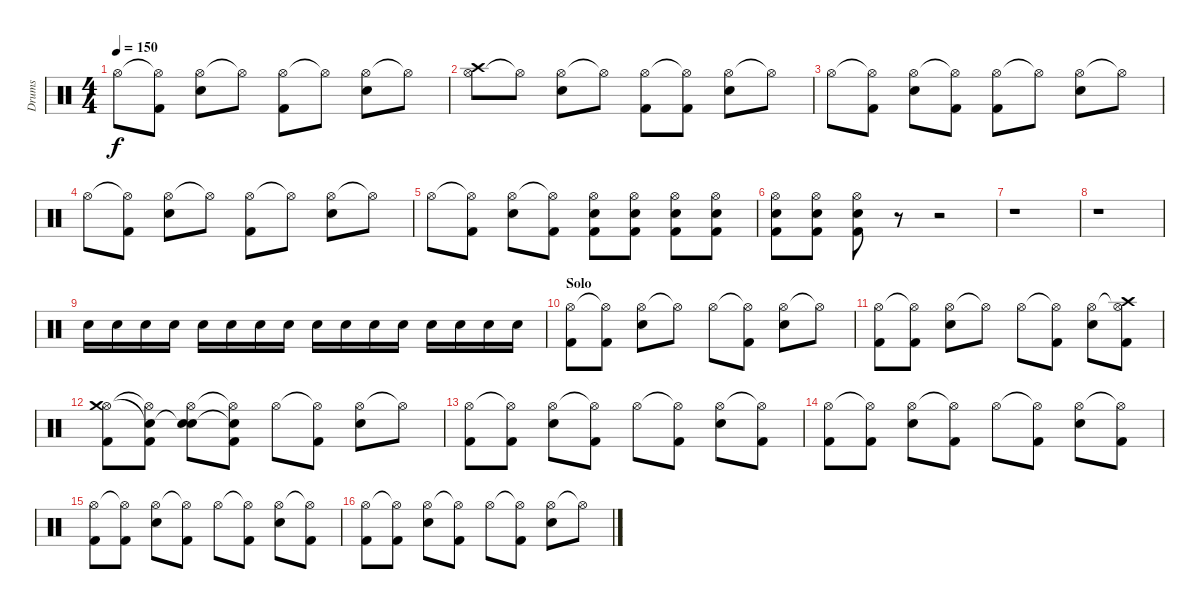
\track ("Drums" "Drums") {instrument percussion}
\staff {score}
\articulation defaults
\ts (4 4)
\tempo 150
\clef neutral
\ks c "Hi-Hat (open)".8{dy f}
("Hi-Hat (open)"{t} "Kick (hit) 2").8 ("Hi-Hat (open)" "Electric Snare (hit)").8 "Hi-Hat (open)"{t}.8 ("Hi-Hat (open)" "Kick (hit) 2").8 "Hi-Hat (open)"{t}.8 ("Hi-Hat (open)" "Electric Snare (hit)").8 "Hi-Hat (open)"{t}.8 |
("Hi-Hat (open)" "Crash high (hit)").8 "Hi-Hat (open)"{t}.8 ("Hi-Hat (open)" "Electric Snare (hit)").8 "Hi-Hat (open)"{t}.8 ("Hi-Hat (open)" "Kick (hit) 2").8 ("Hi-Hat (open)"{t} "Kick (hit) 2").8 ("Hi-Hat (open)" "Electric Snare (hit)").8 "Hi-Hat (open)"{t}.8 |
"Hi-Hat (open)".8 ("Hi-Hat (open)"{t} "Kick (hit) 2").8 ("Hi-Hat (open)" "Electric Snare (hit)").8 ("Hi-Hat (open)"{t} "Kick (hit) 2").8 ("Hi-Hat (open)" "Kick (hit) 2").8 "Hi-Hat (open)"{t}.8 ("Hi-Hat (open)" "Electric Snare (hit)").8 "Hi-Hat (open)"{t}.8 |
"Hi-Hat (open)".8 ("Hi-Hat (open)"{t} "Kick (hit) 2").8 ("Hi-Hat (open)" "Electric Snare (hit)").8 "Hi-Hat (open)"{t}.8 ("Hi-Hat (open)" "Kick (hit) 2").8 "Hi-Hat (open)"{t}.8 ("Hi-Hat (open)" "Electric Snare (hit)").8 "Hi-Hat (open)"{t}.8 |
"Hi-Hat (open)".8 ("Hi-Hat (open)"{t} "Kick (hit) 2").8 ("Hi-Hat (open)" "Electric Snare (hit)").8 ("Hi-Hat (open)"{t} "Kick (hit) 2").8 ("Hi-Hat (open)" "Kick (hit) 2" "Electric Snare (hit)").8 ("Hi-Hat (open)" "Kick (hit) 2" "Electric Snare (hit)").8 ("Hi-Hat (open)" "Kick (hit) 2" "Electric Snare (hit)").8 ("Hi-Hat (open)" "Kick (hit) 2" "Electric Snare (hit)").8 |
("Hi-Hat (open)" "Kick (hit) 2" "Electric Snare (hit)").8 ("Hi-Hat (open)" "Kick (hit) 2" "Electric Snare (hit)").8 ("Hi-Hat (open)" "Kick (hit) 2" "Electric Snare (hit)").8 r.8 r.2 |
r.1 |
r.1 |
"Electric Snare (hit)".16 "Electric Snare (hit)".16 "Electric Snare (hit)".16 "Electric Snare (hit)".16 "Electric Snare (hit)".16 "Electric Snare (hit)".16 "Electric Snare (hit)".16 "Electric Snare (hit)".16 "Electric Snare (hit)".16 "Electric Snare (hit)".16 "Electric Snare (hit)".16 "Electric Snare (hit)".16 "Electric Snare (hit)".16 "Electric Snare (hit)".16 "Electric Snare (hit)".16 "Electric Snare (hit)".16 |
\section ("" "Solo")
("Hi-Hat (open)" "Kick (hit) 2").8 ("Hi-Hat (open)"{t} "Kick (hit) 2").8 ("Hi-Hat (open)" "Electric Snare (hit)").8 "Hi-Hat (open)"{t}.8 "Hi-Hat (open)".8 ("Hi-Hat (open)"{t} "Kick (hit) 2").8 ("Hi-Hat (open)" "Electric Snare (hit)").8 "Hi-Hat (open)"{t}.8 |
("Hi-Hat (open)" "Kick (hit) 2").8 ("Hi-Hat (open)"{t} "Kick (hit) 2").8 ("Hi-Hat (open)" "Electric Snare (hit)").8 "Hi-Hat (open)"{t}.8 "Hi-Hat (open)".8 ("Hi-Hat (open)"{t} "Kick (hit) 2").8 ("Hi-Hat (open)" "Electric Snare (hit)").8 ("Hi-Hat (open)"{t} "Kick (hit) 2" "Crash high (hit)").8 |
("Hi-Hat (open)" "Kick (hit) 2" "Crash medium (hit)").8 ("Hi-Hat (open)"{t} "Kick (hit) 2" "Snare (hit)"{t}).8 ("Hi-Hat (open)" "Electric Snare (hit)" "Snare (hit)"{t}).8 ("Hi-Hat (open)"{t} "Kick (hit) 2" "Snare (hit)"{t}).8 "Hi-Hat (open)".8 ("Hi-Hat (open)"{t} "Kick (hit) 2").8 ("Hi-Hat (open)" "Electric Snare (hit)").8 "Hi-Hat (open)"{t}.8 |
("Hi-Hat (open)" "Kick (hit) 2").8 ("Hi-Hat (open)"{t} "Kick (hit) 2").8 ("Hi-Hat (open)" "Electric Snare (hit)").8 ("Hi-Hat (open)"{t} "Kick (hit) 2").8 "Hi-Hat (open)".8 ("Hi-Hat (open)"{t} "Kick (hit) 2").8 ("Hi-Hat (open)" "Electric Snare (hit)").8 ("Hi-Hat (open)"{t} "Kick (hit) 2").8 |
("Hi-Hat (open)" "Kick (hit) 2").8 ("Hi-Hat (open)"{t} "Kick (hit) 2").8 ("Hi-Hat (open)" "Electric Snare (hit)").8 ("Hi-Hat (open)"{t} "Kick (hit) 2").8 "Hi-Hat (open)".8 ("Hi-Hat (open)"{t} "Kick (hit) 2").8 ("Hi-Hat (open)" "Electric Snare (hit)").8 ("Hi-Hat (open)"{t} "Kick (hit) 2").8 |
("Hi-Hat (open)" "Kick (hit) 2").8 ("Hi-Hat (open)"{t} "Kick (hit) 2").8 ("Hi-Hat (open)" "Electric Snare (hit)").8 ("Hi-Hat (open)"{t} "Kick (hit) 2").8 "Hi-Hat (open)".8 ("Hi-Hat (open)"{t} "Kick (hit) 2").8 ("Hi-Hat (open)" "Electric Snare (hit)").8 ("Hi-Hat (open)"{t} "Kick (hit) 2").8 |
("Hi-Hat (open)" "Kick (hit) 2").8 ("Hi-Hat (open)"{t} "Kick (hit) 2").8 ("Hi-Hat (open)" "Electric Snare (hit)").8 ("Hi-Hat (open)"{t} "Kick (hit) 2").8 "Hi-Hat (open)".8 ("Hi-Hat (open)"{t} "Kick (hit) 2").8 ("Hi-Hat (open)" "Electric Snare (hit)").8 "Hi-Hat (open)"{t}.8
